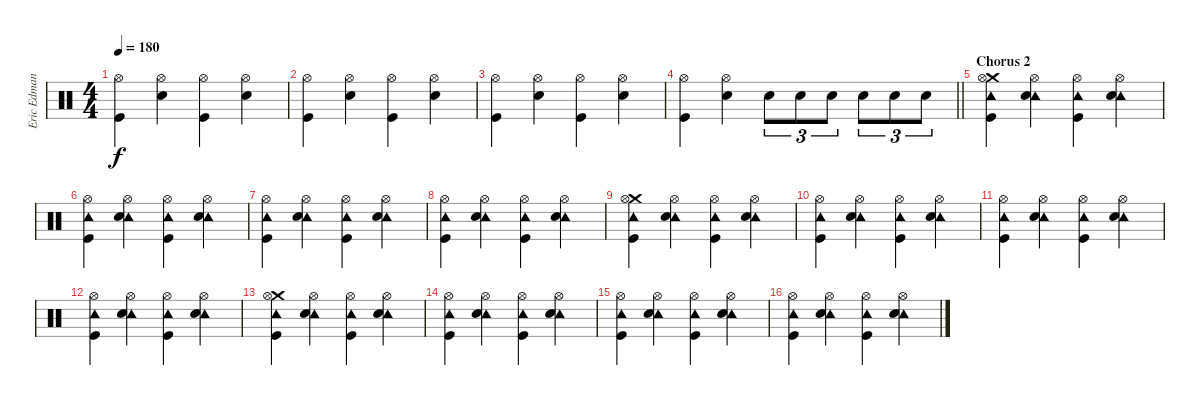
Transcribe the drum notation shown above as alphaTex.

\track ("Eric Edman - Drums" "Eric Edman") {instrument percussion}
\staff {score}
\articulation defaults
\ts (4 4)
\tempo 180
\clef neutral
\ks c
("Hi-Hat (open)" "Kick (hit)").4{dy f} ("Hi-Hat (open)" "Snare (hit) 2").4 ("Hi-Hat (open)" "Kick (hit)").4 ("Hi-Hat (open)" "Snare (hit) 2").4 |
("Hi-Hat (open)" "Kick (hit)").4 ("Hi-Hat (open)" "Snare (hit) 2").4 ("Hi-Hat (open)" "Kick (hit)").4 ("Hi-Hat (open)" "Snare (hit) 2").4 |
("Hi-Hat (open)" "Kick (hit)").4 ("Hi-Hat (open)" "Snare (hit) 2").4 ("Hi-Hat (open)" "Kick (hit)").4 ("Hi-Hat (open)" "Snare (hit) 2").4 |
\barLineRight lightlight
("Hi-Hat (open)" "Kick (hit)").4 ("Hi-Hat (open)" "Snare (hit) 2").4 "Snare (hit) 2".8{tu (3 2)} "Snare (hit) 2".8{tu (3 2)} "Snare (hit) 2".8{tu (3 2)} "Snare (hit) 2".8{tu (3 2)} "Snare (hit) 2".8{tu (3 2)} "Snare (hit) 2".8{tu (3 2)} |
\section ("" "Chorus 2")
("Crash medium (hit)" "Tambourine (hit)" "Kick (hit)" "Hi-Hat (open)").4 ("Tambourine (hit)" "Snare (hit) 2" "Hi-Hat (open)").4 ("Tambourine (hit)" "Kick (hit)" "Hi-Hat (open)").4 ("Tambourine (hit)" "Snare (hit) 2" "Hi-Hat (open)").4 |
("Tambourine (hit)" "Kick (hit)" "Hi-Hat (open)").4 ("Tambourine (hit)" "Snare (hit) 2" "Hi-Hat (open)").4 ("Tambourine (hit)" "Kick (hit)" "Hi-Hat (open)").4 ("Tambourine (hit)" "Snare (hit) 2" "Hi-Hat (open)").4 |
("Tambourine (hit)" "Kick (hit)" "Hi-Hat (open)").4 ("Tambourine (hit)" "Snare (hit) 2" "Hi-Hat (open)").4 ("Tambourine (hit)" "Kick (hit)" "Hi-Hat (open)").4 ("Tambourine (hit)" "Snare (hit) 2" "Hi-Hat (open)").4 |
("Tambourine (hit)" "Kick (hit)" "Hi-Hat (open)").4 ("Tambourine (hit)" "Snare (hit) 2" "Hi-Hat (open)").4 ("Tambourine (hit)" "Kick (hit)" "Hi-Hat (open)").4 ("Tambourine (hit)" "Snare (hit) 2" "Hi-Hat (open)").4 |
("Crash medium (hit)" "Tambourine (hit)" "Kick (hit)" "Hi-Hat (open)").4 ("Tambourine (hit)" "Snare (hit) 2" "Hi-Hat (open)").4 ("Tambourine (hit)" "Kick (hit)" "Hi-Hat (open)").4 ("Tambourine (hit)" "Snare (hit) 2" "Hi-Hat (open)").4 |
("Tambourine (hit)" "Kick (hit)" "Hi-Hat (open)").4 ("Tambourine (hit)" "Snare (hit) 2" "Hi-Hat (open)").4 ("Tambourine (hit)" "Kick (hit)" "Hi-Hat (open)").4 ("Tambourine (hit)" "Snare (hit) 2" "Hi-Hat (open)").4 |
("Tambourine (hit)" "Kick (hit)" "Hi-Hat (open)").4 ("Tambourine (hit)" "Snare (hit) 2" "Hi-Hat (open)").4 ("Tambourine (hit)" "Kick (hit)" "Hi-Hat (open)").4 ("Tambourine (hit)" "Snare (hit) 2" "Hi-Hat (open)").4 |
("Tambourine (hit)" "Kick (hit)" "Hi-Hat (open)").4 ("Tambourine (hit)" "Snare (hit) 2" "Hi-Hat (open)").4 ("Tambourine (hit)" "Kick (hit)" "Hi-Hat (open)").4 ("Tambourine (hit)" "Snare (hit) 2" "Hi-Hat (open)").4 |
("Crash medium (hit)" "Tambourine (hit)" "Kick (hit)" "Hi-Hat (open)").4 ("Tambourine (hit)" "Snare (hit) 2" "Hi-Hat (open)").4 ("Tambourine (hit)" "Kick (hit)" "Hi-Hat (open)").4 ("Tambourine (hit)" "Snare (hit) 2" "Hi-Hat (open)").4 |
("Tambourine (hit)" "Kick (hit)" "Hi-Hat (open)").4 ("Tambourine (hit)" "Snare (hit) 2" "Hi-Hat (open)").4 ("Tambourine (hit)" "Kick (hit)" "Hi-Hat (open)").4 ("Tambourine (hit)" "Snare (hit) 2" "Hi-Hat (open)").4 |
("Tambourine (hit)" "Kick (hit)" "Hi-Hat (open)").4 ("Tambourine (hit)" "Snare (hit) 2" "Hi-Hat (open)").4 ("Tambourine (hit)" "Kick (hit)" "Hi-Hat (open)").4 ("Tambourine (hit)" "Snare (hit) 2" "Hi-Hat (open)").4 |
("Tambourine (hit)" "Kick (hit)" "Hi-Hat (open)").4 ("Tambourine (hit)" "Snare (hit) 2" "Hi-Hat (open)").4 ("Tambourine (hit)" "Kick (hit)" "Hi-Hat (open)").4 ("Tambourine (hit)" "Snare (hit) 2" "Hi-Hat (open)").4
